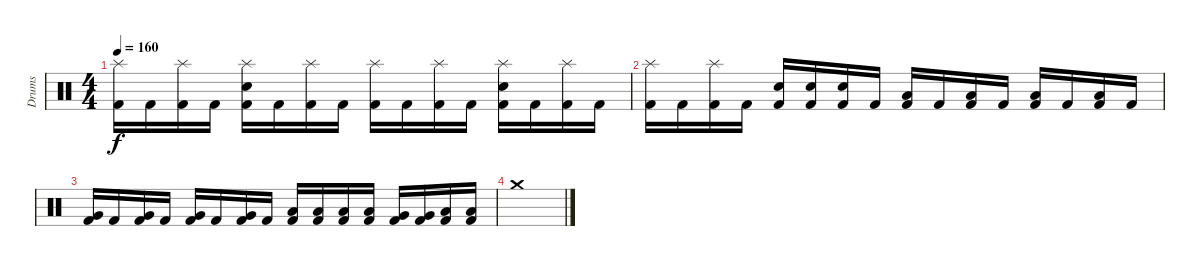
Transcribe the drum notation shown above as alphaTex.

\track ("Drums" "Drums") {instrument percussion}
\staff {score}
\articulation defaults
\ts (4 4)
\tempo 160
\clef neutral
\ks c
("Splash (hit)" "Kick (hit) 2").16{dy f} "Kick (hit) 2".16 ("Splash (hit)" "Kick (hit) 2").16 "Kick (hit) 2".16 ("Splash (hit)" "Snare (hit) 2" "Kick (hit) 2").16 "Kick (hit) 2".16 ("Splash (hit)" "Kick (hit) 2").16 "Kick (hit) 2".16 ("Splash (hit)" "Kick (hit) 2").16 "Kick (hit) 2".16 ("Splash (hit)" "Kick (hit) 2").16 "Kick (hit) 2".16 ("Splash (hit)" "Snare (hit) 2" "Kick (hit) 2").16 "Kick (hit) 2".16 ("Splash (hit)" "Kick (hit) 2").16 "Kick (hit) 2".16 |
("Splash (hit)" "Kick (hit) 2").16 "Kick (hit) 2".16 ("Splash (hit)" "Kick (hit) 2").16 "Kick (hit) 2".16 ("Snare (hit) 2" "Kick (hit) 2").16 ("Snare (hit) 2" "Kick (hit) 2").16 ("Snare (hit) 2" "Kick (hit) 2").16 "Kick (hit) 2".16 ("Low Tom (hit)" "Kick (hit) 2").16 "Kick (hit) 2".16 ("Low Tom (hit)" "Kick (hit) 2").16 "Kick (hit) 2".16 ("Low Tom (hit)" "Kick (hit) 2").16 "Kick (hit) 2".16 ("Low Tom (hit)" "Kick (hit) 2").16 "Kick (hit) 2".16 |
("Very Low Tom (hit)" "Kick (hit) 2").16 "Kick (hit) 2".16 ("Very Low Tom (hit)" "Kick (hit) 2").16 "Kick (hit) 2".16 ("Very Low Tom (hit)" "Kick (hit) 2").16 "Kick (hit) 2".16 ("Very Low Tom (hit)" "Kick (hit) 2").16 "Kick (hit) 2".16 ("Low Tom (hit)" "Kick (hit) 2").16 ("Low Tom (hit)" "Kick (hit) 2").16 ("Low Tom (hit)" "Kick (hit) 2").16 ("Low Tom (hit)" "Kick (hit) 2").16 ("Very Low Tom (hit)" "Kick (hit) 2").16 ("Very Low Tom (hit)" "Kick (hit) 2").16 ("Low Floor Tom (hit)" "Kick (hit) 2").16 ("Low Floor Tom (hit)" "Kick (hit) 2").16 |
"Crash medium (hit)".1
